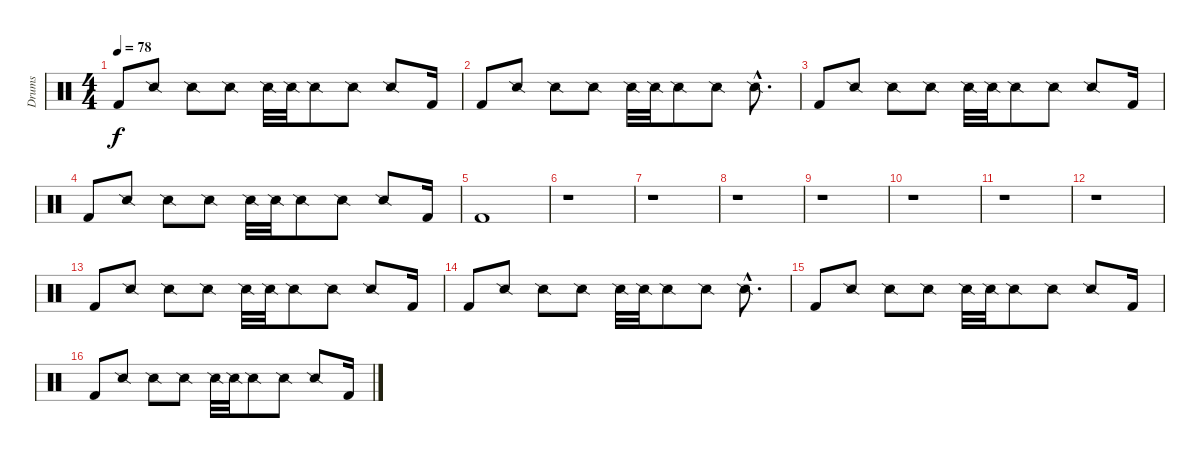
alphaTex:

\track ("Drums" "Drums") {instrument percussion}
\staff {score}
\articulation defaults
\ts (4 4)
\tempo 78
\clef neutral
\ks c "Kick (hit) 2".8{dy f} "Snare (side stick) 2".8 "Snare (side stick) 2".8 "Snare (side stick) 2".8 "Snare (side stick) 2".32 "Snare (side stick) 2".32 "Snare (side stick) 2".8 "Snare (side stick) 2".8 "Snare (side stick) 2".8 "Kick (hit) 2".16
|
"Kick (hit) 2".8 "Snare (side stick) 2".8 "Snare (side stick) 2".8 "Snare (side stick) 2".8 "Snare (side stick) 2".32 "Snare (side stick) 2".32 "Snare (side stick) 2".8 "Snare (side stick) 2".8 "Snare (side stick) 2"{hac}.8{d} |
"Kick (hit) 2".8 "Snare (side stick) 2".8 "Snare (side stick) 2".8 "Snare (side stick) 2".8 "Snare (side stick) 2".32 "Snare (side stick) 2".32 "Snare (side stick) 2".8 "Snare (side stick) 2".8 "Snare (side stick) 2".8 "Kick (hit) 2".16 |
"Kick (hit) 2".8 "Snare (side stick) 2".8 "Snare (side stick) 2".8 "Snare (side stick) 2".8 "Snare (side stick) 2".32 "Snare (side stick) 2".32 "Snare (side stick) 2".8 "Snare (side stick) 2".8 "Snare (side stick) 2".8 "Kick (hit) 2".16 |
"Kick (hit) 2".1 |
r.1 |
r.1 |
r.1 |
r.1 |
r.1 |
r.1 |
r.1 |
"Kick (hit) 2".8 "Snare (side stick) 2".8 "Snare (side stick) 2".8 "Snare (side stick) 2".8 "Snare (side stick) 2".32 "Snare (side stick) 2".32 "Snare (side stick) 2".8 "Snare (side stick) 2".8 "Snare (side stick) 2".8 "Kick (hit) 2".16 |
"Kick (hit) 2".8 "Snare (side stick) 2".8 "Snare (side stick) 2".8 "Snare (side stick) 2".8 "Snare (side stick) 2".32 "Snare (side stick) 2".32 "Snare (side stick) 2".8 "Snare (side stick) 2".8 "Snare (side stick) 2"{hac}.8{d} |
"Kick (hit) 2".8 "Snare (side stick) 2".8 "Snare (side stick) 2".8 "Snare (side stick) 2".8 "Snare (side stick) 2".32 "Snare (side stick) 2".32 "Snare (side stick) 2".8 "Snare (side stick) 2".8 "Snare (side stick) 2".8 "Kick (hit) 2".16 |
"Kick (hit) 2".8 "Snare (side stick) 2".8 "Snare (side stick) 2".8 "Snare (side stick) 2".8 "Snare (side stick) 2".32 "Snare (side stick) 2".32 "Snare (side stick) 2".8 "Snare (side stick) 2".8 "Snare (side stick) 2".8 "Kick (hit) 2".16
